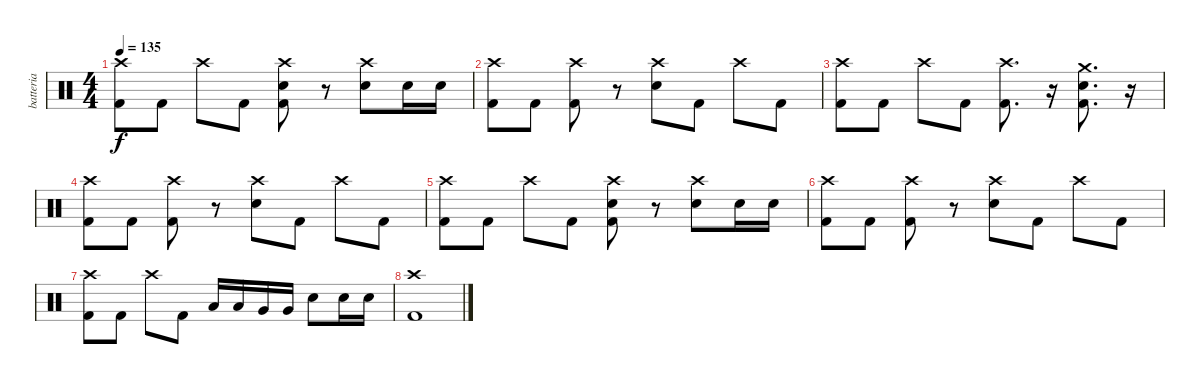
\track ("batteria" "batteria") {instrument percussion}
\staff {score}
\articulation defaults
\ts (4 4)
\tempo 135
\clef neutral
\ks c
("Crash high (hit)" "Kick (hit) 2").8{dy f} "Kick (hit) 2".8 "Crash high (hit)".8 "Kick (hit) 2".8 ("Crash high (hit)" "Electric Snare (hit)" "Kick (hit) 2").8 r.8 ("Crash high (hit)" "Electric Snare (hit)").8 "Electric Snare (hit)".16 "Electric Snare (hit)".16 |
("Crash high (hit)" "Kick (hit) 2").8 "Kick (hit) 2".8 ("Crash high (hit)" "Kick (hit) 2").8 r.8 ("Crash high (hit)" "Electric Snare (hit)").8 "Kick (hit) 2".8 "Crash high (hit)".8 "Kick (hit) 2".8 |
("Crash high (hit)" "Kick (hit) 2").8 "Kick (hit) 2".8 "Crash high (hit)".8 "Kick (hit) 2".8 ("Crash high (hit)" "Kick (hit) 2").8{d} r.16 ("Crash medium (hit)" "Electric Snare (hit)" "Kick (hit) 2").8{d} r.16 |
("Crash high (hit)" "Kick (hit) 2").8 "Kick (hit) 2".8 ("Crash high (hit)" "Kick (hit) 2").8 r.8 ("Crash high (hit)" "Electric Snare (hit)").8 "Kick (hit) 2".8 "Crash high (hit)".8 "Kick (hit) 2".8 |
("Crash high (hit)" "Kick (hit) 2").8 "Kick (hit) 2".8 "Crash high (hit)".8 "Kick (hit) 2".8 ("Crash high (hit)" "Electric Snare (hit)" "Kick (hit) 2").8 r.8 ("Crash high (hit)" "Electric Snare (hit)").8 "Electric Snare (hit)".16 "Electric Snare (hit)".16 |
("Crash high (hit)" "Kick (hit) 2").8 "Kick (hit) 2".8 ("Crash high (hit)" "Kick (hit) 2").8 r.8 ("Crash high (hit)" "Electric Snare (hit)").8 "Kick (hit) 2".8 "Crash high (hit)".8 "Kick (hit) 2".8 |
("Crash high (hit)" "Kick (hit) 2").8 "Kick (hit) 2".8 "Crash high (hit)".8 "Kick (hit) 2".8 "Low Tom (hit)".16 "Low Tom (hit)".16 "Very Low Tom (hit)".16 "Very Low Tom (hit)".16 "Electric Snare (hit)".8 "Electric Snare (hit)".16 "Electric Snare (hit)".16 |
("Crash high (hit)" "Kick (hit) 2").1
